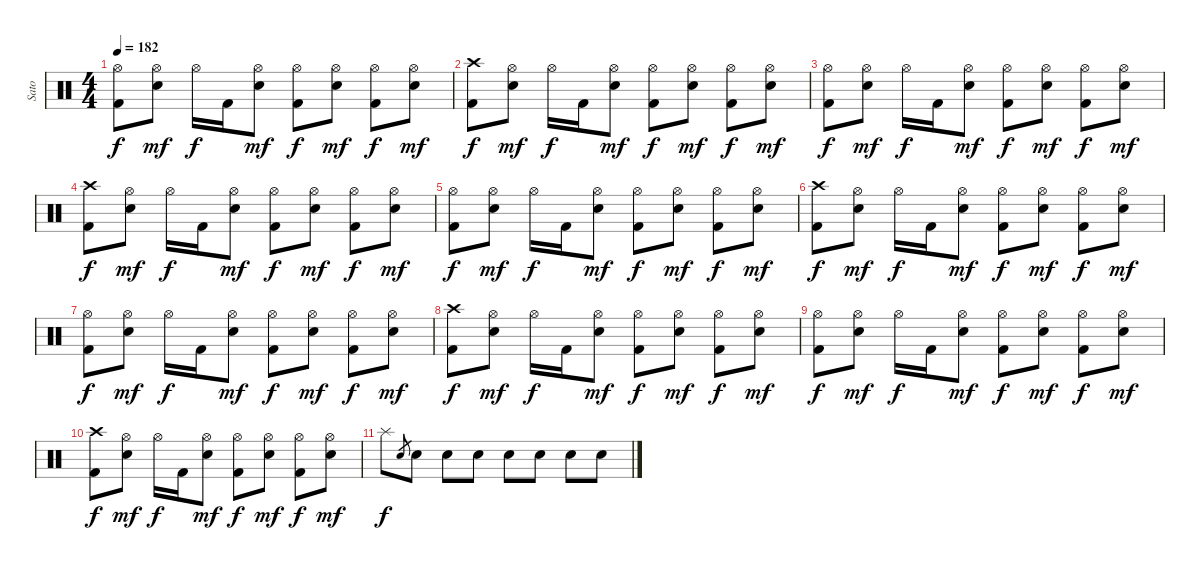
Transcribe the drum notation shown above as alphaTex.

\track ("Sato" "Sato") {instrument percussion}
\staff {score}
\articulation defaults
\ts (4 4)
\tempo 182
\clef neutral
\ks c
("Hi-Hat (open)" "Kick (hit) 2").8{dy f} ("Hi-Hat (open)" "Electric Snare (hit)").8{dy mf} "Hi-Hat (open)".16{dy f} "Kick (hit) 2".16 ("Hi-Hat (open)" "Electric Snare (hit)").8{dy mf} ("Hi-Hat (open)" "Kick (hit) 2").8{dy f} ("Hi-Hat (open)" "Electric Snare (hit)").8{dy mf} ("Hi-Hat (open)" "Kick (hit) 2").8{dy f} ("Hi-Hat (open)" "Electric Snare (hit)").8{dy mf} |
("Crash high (hit)" "Kick (hit) 2").8{dy f} ("Hi-Hat (open)" "Electric Snare (hit)").8{dy mf} "Hi-Hat (open)".16{dy f} "Kick (hit) 2".16 ("Hi-Hat (open)" "Electric Snare (hit)").8{dy mf} ("Hi-Hat (open)" "Kick (hit) 2").8{dy f} ("Hi-Hat (open)" "Electric Snare (hit)").8{dy mf} ("Hi-Hat (open)" "Kick (hit) 2").8{dy f} ("Hi-Hat (open)" "Electric Snare (hit)").8{dy mf} |
("Hi-Hat (open)" "Kick (hit) 2").8{dy f} ("Hi-Hat (open)" "Electric Snare (hit)").8{dy mf} "Hi-Hat (open)".16{dy f} "Kick (hit) 2".16 ("Hi-Hat (open)" "Electric Snare (hit)").8{dy mf} ("Hi-Hat (open)" "Kick (hit) 2").8{dy f} ("Hi-Hat (open)" "Electric Snare (hit)").8{dy mf} ("Hi-Hat (open)" "Kick (hit) 2").8{dy f} ("Hi-Hat (open)" "Electric Snare (hit)").8{dy mf} |
("Crash high (hit)" "Kick (hit) 2").8{dy f} ("Hi-Hat (open)" "Electric Snare (hit)").8{dy mf} "Hi-Hat (open)".16{dy f} "Kick (hit) 2".16 ("Hi-Hat (open)" "Electric Snare (hit)").8{dy mf} ("Hi-Hat (open)" "Kick (hit) 2").8{dy f} ("Hi-Hat (open)" "Electric Snare (hit)").8{dy mf} ("Hi-Hat (open)" "Kick (hit) 2").8{dy f} ("Hi-Hat (open)" "Electric Snare (hit)").8{dy mf} |
("Hi-Hat (open)" "Kick (hit) 2").8{dy f} ("Hi-Hat (open)" "Electric Snare (hit)").8{dy mf} "Hi-Hat (open)".16{dy f} "Kick (hit) 2".16 ("Hi-Hat (open)" "Electric Snare (hit)").8{dy mf} ("Hi-Hat (open)" "Kick (hit) 2").8{dy f} ("Hi-Hat (open)" "Electric Snare (hit)").8{dy mf} ("Hi-Hat (open)" "Kick (hit) 2").8{dy f} ("Hi-Hat (open)" "Electric Snare (hit)").8{dy mf} |
("Crash high (hit)" "Kick (hit) 2").8{dy f} ("Hi-Hat (open)" "Electric Snare (hit)").8{dy mf} "Hi-Hat (open)".16{dy f} "Kick (hit) 2".16 ("Hi-Hat (open)" "Electric Snare (hit)").8{dy mf} ("Hi-Hat (open)" "Kick (hit) 2").8{dy f} ("Hi-Hat (open)" "Electric Snare (hit)").8{dy mf} ("Hi-Hat (open)" "Kick (hit) 2").8{dy f} ("Hi-Hat (open)" "Electric Snare (hit)").8{dy mf} |
("Hi-Hat (open)" "Kick (hit) 2").8{dy f} ("Hi-Hat (open)" "Electric Snare (hit)").8{dy mf} "Hi-Hat (open)".16{dy f} "Kick (hit) 2".16 ("Hi-Hat (open)" "Electric Snare (hit)").8{dy mf} ("Hi-Hat (open)" "Kick (hit) 2").8{dy f} ("Hi-Hat (open)" "Electric Snare (hit)").8{dy mf} ("Hi-Hat (open)" "Kick (hit) 2").8{dy f} ("Hi-Hat (open)" "Electric Snare (hit)").8{dy mf} |
("Crash high (hit)" "Kick (hit) 2").8{dy f} ("Hi-Hat (open)" "Electric Snare (hit)").8{dy mf} "Hi-Hat (open)".16{dy f} "Kick (hit) 2".16 ("Hi-Hat (open)" "Electric Snare (hit)").8{dy mf} ("Hi-Hat (open)" "Kick (hit) 2").8{dy f} ("Hi-Hat (open)" "Electric Snare (hit)").8{dy mf} ("Hi-Hat (open)" "Kick (hit) 2").8{dy f} ("Hi-Hat (open)" "Electric Snare (hit)").8{dy mf} |
("Hi-Hat (open)" "Kick (hit) 2").8{dy f} ("Hi-Hat (open)" "Electric Snare (hit)").8{dy mf} "Hi-Hat (open)".16{dy f} "Kick (hit) 2".16 ("Hi-Hat (open)" "Electric Snare (hit)").8{dy mf} ("Hi-Hat (open)" "Kick (hit) 2").8{dy f} ("Hi-Hat (open)" "Electric Snare (hit)").8{dy mf} ("Hi-Hat (open)" "Kick (hit) 2").8{dy f} ("Hi-Hat (open)" "Electric Snare (hit)").8{dy mf} |
("Crash high (hit)" "Kick (hit) 2").8{dy f} ("Hi-Hat (open)" "Electric Snare (hit)").8{dy mf} "Hi-Hat (open)".16{dy f} "Kick (hit) 2".16 ("Hi-Hat (open)" "Electric Snare (hit)").8{dy mf} ("Hi-Hat (open)" "Kick (hit) 2").8{dy f} ("Hi-Hat (open)" "Electric Snare (hit)").8{dy mf} ("Hi-Hat (open)" "Kick (hit) 2").8{dy f} ("Hi-Hat (open)" "Electric Snare (hit)").8{dy mf} |
"Splash (hit)".8{dy f} "Electric Snare (hit)".8{gr} "Electric Snare (hit)".8 "Electric Snare (hit)".8 "Electric Snare (hit)".8 "Electric Snare (hit)".8 "Electric Snare (hit)".8 "Electric Snare (hit)".8 "Electric Snare (hit)".8
